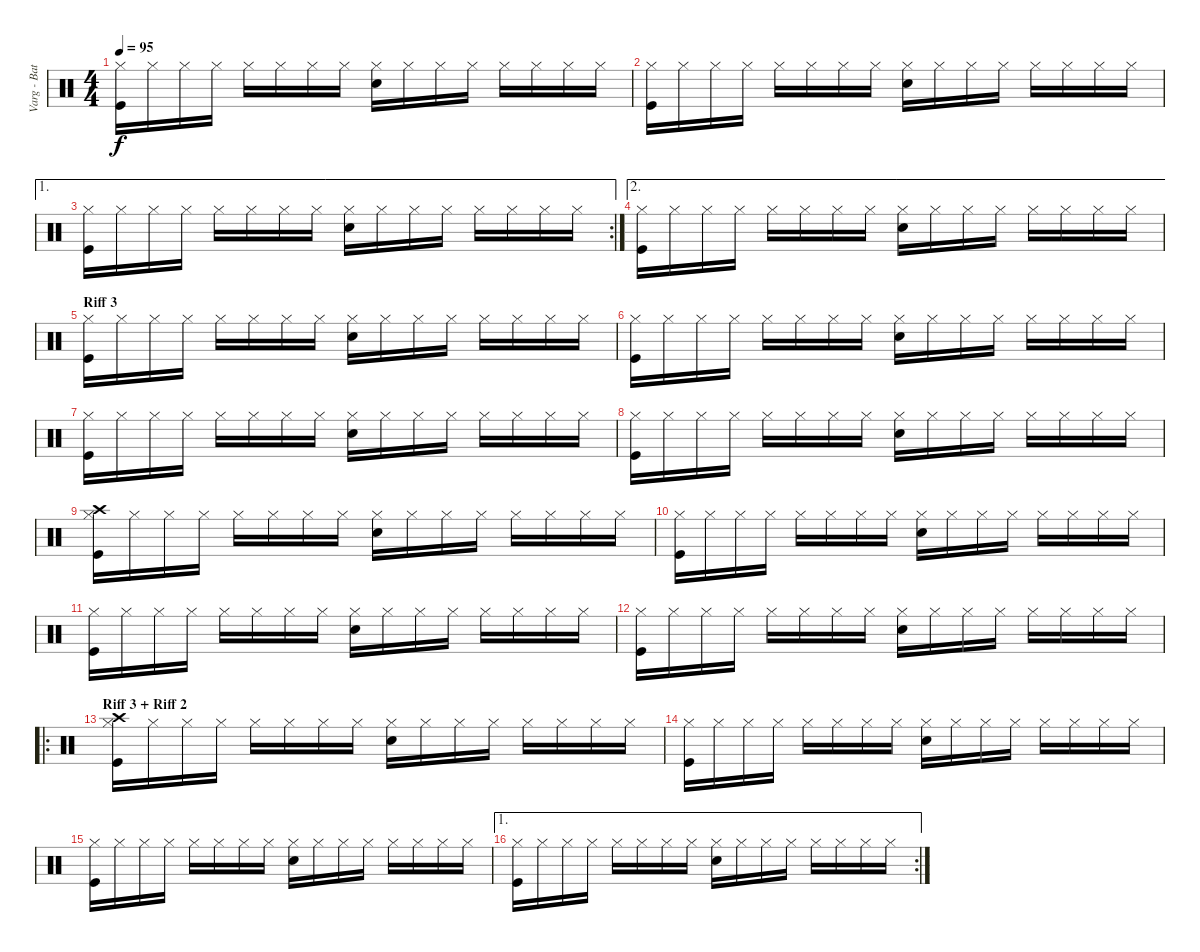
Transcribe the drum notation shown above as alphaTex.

\track ("Varg - Batterie" "Varg - Bat") {instrument percussion}
\staff {score}
\articulation defaults
\ts (4 4)
\tempo 95
\clef neutral
\ks c
("Hi-Hat (closed)" "Kick (hit)").16{dy f} "Hi-Hat (closed)".16 "Hi-Hat (closed)".16 "Hi-Hat (closed)".16 "Hi-Hat (closed)".16 "Hi-Hat (closed)".16 "Hi-Hat (closed)".16 "Hi-Hat (closed)".16 ("Hi-Hat (closed)" "Electric Snare (hit)").16 "Hi-Hat (closed)".16 "Hi-Hat (closed)".16 "Hi-Hat (closed)".16 "Hi-Hat (closed)".16 "Hi-Hat (closed)".16 "Hi-Hat (closed)".16 "Hi-Hat (closed)".16 |
("Hi-Hat (closed)" "Kick (hit)").16 "Hi-Hat (closed)".16 "Hi-Hat (closed)".16 "Hi-Hat (closed)".16 "Hi-Hat (closed)".16 "Hi-Hat (closed)".16 "Hi-Hat (closed)".16 "Hi-Hat (closed)".16 ("Hi-Hat (closed)" "Electric Snare (hit)").16 "Hi-Hat (closed)".16 "Hi-Hat (closed)".16 "Hi-Hat (closed)".16 "Hi-Hat (closed)".16 "Hi-Hat (closed)".16 "Hi-Hat (closed)".16 "Hi-Hat (closed)".16 |
\ae 1
\rc 2
("Hi-Hat (closed)" "Kick (hit)").16 "Hi-Hat (closed)".16 "Hi-Hat (closed)".16 "Hi-Hat (closed)".16 "Hi-Hat (closed)".16 "Hi-Hat (closed)".16 "Hi-Hat (closed)".16 "Hi-Hat (closed)".16 ("Hi-Hat (closed)" "Electric Snare (hit)").16 "Hi-Hat (closed)".16 "Hi-Hat (closed)".16 "Hi-Hat (closed)".16 "Hi-Hat (closed)".16 "Hi-Hat (closed)".16 "Hi-Hat (closed)".16 "Hi-Hat (closed)".16 |
\ae 2
("Hi-Hat (closed)" "Kick (hit)").16 "Hi-Hat (closed)".16 "Hi-Hat (closed)".16 "Hi-Hat (closed)".16 "Hi-Hat (closed)".16 "Hi-Hat (closed)".16 "Hi-Hat (closed)".16 "Hi-Hat (closed)".16 ("Hi-Hat (closed)" "Electric Snare (hit)").16 "Hi-Hat (closed)".16 "Hi-Hat (closed)".16 "Hi-Hat (closed)".16 "Hi-Hat (closed)".16 "Hi-Hat (closed)".16 "Hi-Hat (closed)".16 "Hi-Hat (closed)".16 |
\section ("" "Riff 3")
("Hi-Hat (closed)" "Kick (hit)").16 "Hi-Hat (closed)".16 "Hi-Hat (closed)".16 "Hi-Hat (closed)".16 "Hi-Hat (closed)".16 "Hi-Hat (closed)".16 "Hi-Hat (closed)".16 "Hi-Hat (closed)".16 ("Hi-Hat (closed)" "Electric Snare (hit)").16 "Hi-Hat (closed)".16 "Hi-Hat (closed)".16 "Hi-Hat (closed)".16 "Hi-Hat (closed)".16 "Hi-Hat (closed)".16 "Hi-Hat (closed)".16 "Hi-Hat (closed)".16 |
("Hi-Hat (closed)" "Kick (hit)").16 "Hi-Hat (closed)".16 "Hi-Hat (closed)".16 "Hi-Hat (closed)".16 "Hi-Hat (closed)".16 "Hi-Hat (closed)".16 "Hi-Hat (closed)".16 "Hi-Hat (closed)".16 ("Hi-Hat (closed)" "Electric Snare (hit)").16 "Hi-Hat (closed)".16 "Hi-Hat (closed)".16 "Hi-Hat (closed)".16 "Hi-Hat (closed)".16 "Hi-Hat (closed)".16 "Hi-Hat (closed)".16 "Hi-Hat (closed)".16 |
("Hi-Hat (closed)" "Kick (hit)").16 "Hi-Hat (closed)".16 "Hi-Hat (closed)".16 "Hi-Hat (closed)".16 "Hi-Hat (closed)".16 "Hi-Hat (closed)".16 "Hi-Hat (closed)".16 "Hi-Hat (closed)".16 ("Hi-Hat (closed)" "Electric Snare (hit)").16 "Hi-Hat (closed)".16 "Hi-Hat (closed)".16 "Hi-Hat (closed)".16 "Hi-Hat (closed)".16 "Hi-Hat (closed)".16 "Hi-Hat (closed)".16 "Hi-Hat (closed)".16 |
("Hi-Hat (closed)" "Kick (hit)").16 "Hi-Hat (closed)".16 "Hi-Hat (closed)".16 "Hi-Hat (closed)".16 "Hi-Hat (closed)".16 "Hi-Hat (closed)".16 "Hi-Hat (closed)".16 "Hi-Hat (closed)".16 ("Hi-Hat (closed)" "Electric Snare (hit)").16 "Hi-Hat (closed)".16 "Hi-Hat (closed)".16 "Hi-Hat (closed)".16 "Hi-Hat (closed)".16 "Hi-Hat (closed)".16 "Hi-Hat (closed)".16 "Hi-Hat (closed)".16 |
("Hi-Hat (closed)" "Crash high (hit)" "Kick (hit)").16 "Hi-Hat (closed)".16 "Hi-Hat (closed)".16 "Hi-Hat (closed)".16 "Hi-Hat (closed)".16 "Hi-Hat (closed)".16 "Hi-Hat (closed)".16 "Hi-Hat (closed)".16 ("Hi-Hat (closed)" "Electric Snare (hit)").16 "Hi-Hat (closed)".16 "Hi-Hat (closed)".16 "Hi-Hat (closed)".16 "Hi-Hat (closed)".16 "Hi-Hat (closed)".16 "Hi-Hat (closed)".16 "Hi-Hat (closed)".16 |
("Hi-Hat (closed)" "Kick (hit)").16 "Hi-Hat (closed)".16 "Hi-Hat (closed)".16 "Hi-Hat (closed)".16 "Hi-Hat (closed)".16 "Hi-Hat (closed)".16 "Hi-Hat (closed)".16 "Hi-Hat (closed)".16 ("Hi-Hat (closed)" "Electric Snare (hit)").16 "Hi-Hat (closed)".16 "Hi-Hat (closed)".16 "Hi-Hat (closed)".16 "Hi-Hat (closed)".16 "Hi-Hat (closed)".16 "Hi-Hat (closed)".16 "Hi-Hat (closed)".16 |
("Hi-Hat (closed)" "Kick (hit)").16 "Hi-Hat (closed)".16 "Hi-Hat (closed)".16 "Hi-Hat (closed)".16 "Hi-Hat (closed)".16 "Hi-Hat (closed)".16 "Hi-Hat (closed)".16 "Hi-Hat (closed)".16 ("Hi-Hat (closed)" "Electric Snare (hit)").16 "Hi-Hat (closed)".16 "Hi-Hat (closed)".16 "Hi-Hat (closed)".16 "Hi-Hat (closed)".16 "Hi-Hat (closed)".16 "Hi-Hat (closed)".16 "Hi-Hat (closed)".16 |
("Hi-Hat (closed)" "Kick (hit)").16 "Hi-Hat (closed)".16 "Hi-Hat (closed)".16 "Hi-Hat (closed)".16 "Hi-Hat (closed)".16 "Hi-Hat (closed)".16 "Hi-Hat (closed)".16 "Hi-Hat (closed)".16 ("Hi-Hat (closed)" "Electric Snare (hit)").16 "Hi-Hat (closed)".16 "Hi-Hat (closed)".16 "Hi-Hat (closed)".16 "Hi-Hat (closed)".16 "Hi-Hat (closed)".16 "Hi-Hat (closed)".16 "Hi-Hat (closed)".16 |
\ro
\section ("" "Riff 3 + Riff 2")
("Hi-Hat (closed)" "Crash high (hit)" "Kick (hit)").16 "Hi-Hat (closed)".16 "Hi-Hat (closed)".16 "Hi-Hat (closed)".16 "Hi-Hat (closed)".16 "Hi-Hat (closed)".16 "Hi-Hat (closed)".16 "Hi-Hat (closed)".16 ("Hi-Hat (closed)" "Electric Snare (hit)").16 "Hi-Hat (closed)".16 "Hi-Hat (closed)".16 "Hi-Hat (closed)".16 "Hi-Hat (closed)".16 "Hi-Hat (closed)".16 "Hi-Hat (closed)".16 "Hi-Hat (closed)".16 |
("Hi-Hat (closed)" "Kick (hit)").16 "Hi-Hat (closed)".16 "Hi-Hat (closed)".16 "Hi-Hat (closed)".16 "Hi-Hat (closed)".16 "Hi-Hat (closed)".16 "Hi-Hat (closed)".16 "Hi-Hat (closed)".16 ("Hi-Hat (closed)" "Electric Snare (hit)").16 "Hi-Hat (closed)".16 "Hi-Hat (closed)".16 "Hi-Hat (closed)".16 "Hi-Hat (closed)".16 "Hi-Hat (closed)".16 "Hi-Hat (closed)".16 "Hi-Hat (closed)".16 |
("Hi-Hat (closed)" "Kick (hit)").16 "Hi-Hat (closed)".16 "Hi-Hat (closed)".16 "Hi-Hat (closed)".16 "Hi-Hat (closed)".16 "Hi-Hat (closed)".16 "Hi-Hat (closed)".16 "Hi-Hat (closed)".16 ("Hi-Hat (closed)" "Electric Snare (hit)").16 "Hi-Hat (closed)".16 "Hi-Hat (closed)".16 "Hi-Hat (closed)".16 "Hi-Hat (closed)".16 "Hi-Hat (closed)".16 "Hi-Hat (closed)".16 "Hi-Hat (closed)".16 |
\ae 1
\rc 2
("Hi-Hat (closed)" "Kick (hit)").16 "Hi-Hat (closed)".16 "Hi-Hat (closed)".16 "Hi-Hat (closed)".16 "Hi-Hat (closed)".16 "Hi-Hat (closed)".16 "Hi-Hat (closed)".16 "Hi-Hat (closed)".16 ("Hi-Hat (closed)" "Electric Snare (hit)").16 "Hi-Hat (closed)".16 "Hi-Hat (closed)".16 "Hi-Hat (closed)".16 "Hi-Hat (closed)".16 "Hi-Hat (closed)".16 "Hi-Hat (closed)".16 "Hi-Hat (closed)".16
